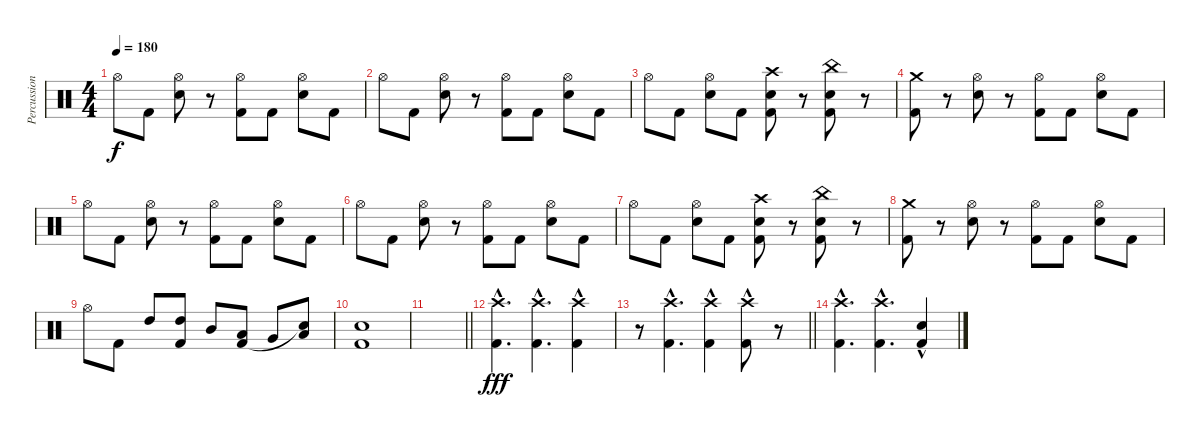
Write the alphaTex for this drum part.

\track ("Percussion" "Percussion") {instrument percussion}
\staff {score}
\articulation defaults
\ts (4 4)
\tempo 180
\clef neutral
\ks c "Hi-Hat (open)".8{dy f} "Kick (hit) 2".8
("Hi-Hat (open)" "Electric Snare (hit)").8 r.8 ("Hi-Hat (open)" "Kick (hit) 2").8 "Kick (hit) 2".8 ("Hi-Hat (open)" "Electric Snare (hit)").8 "Kick (hit) 2".8 |
"Hi-Hat (open)".8 "Kick (hit) 2".8 ("Hi-Hat (open)" "Electric Snare (hit)").8 r.8 ("Hi-Hat (open)" "Kick (hit) 2").8 "Kick (hit) 2".8 ("Hi-Hat (open)" "Electric Snare (hit)").8 "Kick (hit) 2".8 |
"Hi-Hat (open)".8 "Kick (hit) 2".8 ("Hi-Hat (open)" "Electric Snare (hit)").8 "Kick (hit) 2".8 ("Crash high (hit)" "Electric Snare (hit)" "Kick (hit) 2").8 r.8 ("China (hit)" "Electric Snare (hit)" "Kick (hit) 2").8 r.8 |
("Crash medium (hit)" "Kick (hit) 2").8 r.8 ("Hi-Hat (open)" "Electric Snare (hit)").8 r.8 ("Hi-Hat (open)" "Kick (hit) 2").8 "Kick (hit) 2".8 ("Hi-Hat (open)" "Electric Snare (hit)").8 "Kick (hit) 2".8 |
"Hi-Hat (open)".8 "Kick (hit) 2".8 ("Hi-Hat (open)" "Electric Snare (hit)").8 r.8 ("Hi-Hat (open)" "Kick (hit) 2").8 "Kick (hit) 2".8 ("Hi-Hat (open)" "Electric Snare (hit)").8 "Kick (hit) 2".8 |
"Hi-Hat (open)".8 "Kick (hit) 2".8 ("Hi-Hat (open)" "Electric Snare (hit)").8 r.8 ("Hi-Hat (open)" "Kick (hit) 2").8 "Kick (hit) 2".8 ("Hi-Hat (open)" "Electric Snare (hit)").8 "Kick (hit) 2".8 |
"Hi-Hat (open)".8 "Kick (hit) 2".8 ("Hi-Hat (open)" "Electric Snare (hit)").8 "Kick (hit) 2".8 ("Crash high (hit)" "Electric Snare (hit)" "Kick (hit) 2").8 r.8 ("China (hit)" "Electric Snare (hit)" "Kick (hit) 2").8 r.8 |
("Crash medium (hit)" "Kick (hit) 2").8 r.8 ("Hi-Hat (open)" "Electric Snare (hit)").8 r.8 ("Hi-Hat (open)" "Kick (hit) 2").8 "Kick (hit) 2".8 ("Hi-Hat (open)" "Electric Snare (hit)").8 "Kick (hit) 2".8 |
"Hi-Hat (open)".8 "Kick (hit) 2".8 "High Tom (hit)".8 ("High Tom (hit)" "Kick (hit) 2").8 "Mid Tom (hit)".8 ("Low Tom (hit)" "Kick (hit) 2").8 "Very Low Tom (hit)".8 ("Low Floor Tom (hit)" "Snare (hit)"{t}).8 |
("Electric Snare (hit)" "Kick (hit) 2").1 |
\barLineRight lightlight
|
("Crash high (hit)"{hac} "Kick (hit) 2"{hac}).4{d dy fff} ("Crash high (hit)"{hac} "Kick (hit) 2"{hac}).4{d} ("Crash high (hit)"{hac} "Kick (hit) 2"{hac}).4 |
\barLineRight lightlight
r.8 ("Crash high (hit)"{hac} "Kick (hit) 2"{hac}).4{d} ("Crash high (hit)"{hac} "Kick (hit) 2"{hac}).4 ("Crash high (hit)"{hac} "Kick (hit) 2"{hac}).8 r.8 |
("Crash high (hit)"{hac} "Kick (hit) 2"{hac}).4{d} ("Crash high (hit)"{hac} "Kick (hit) 2"{hac}).4{d} ("Electric Snare (hit)" "Kick (hit) 2"{hac}).4
